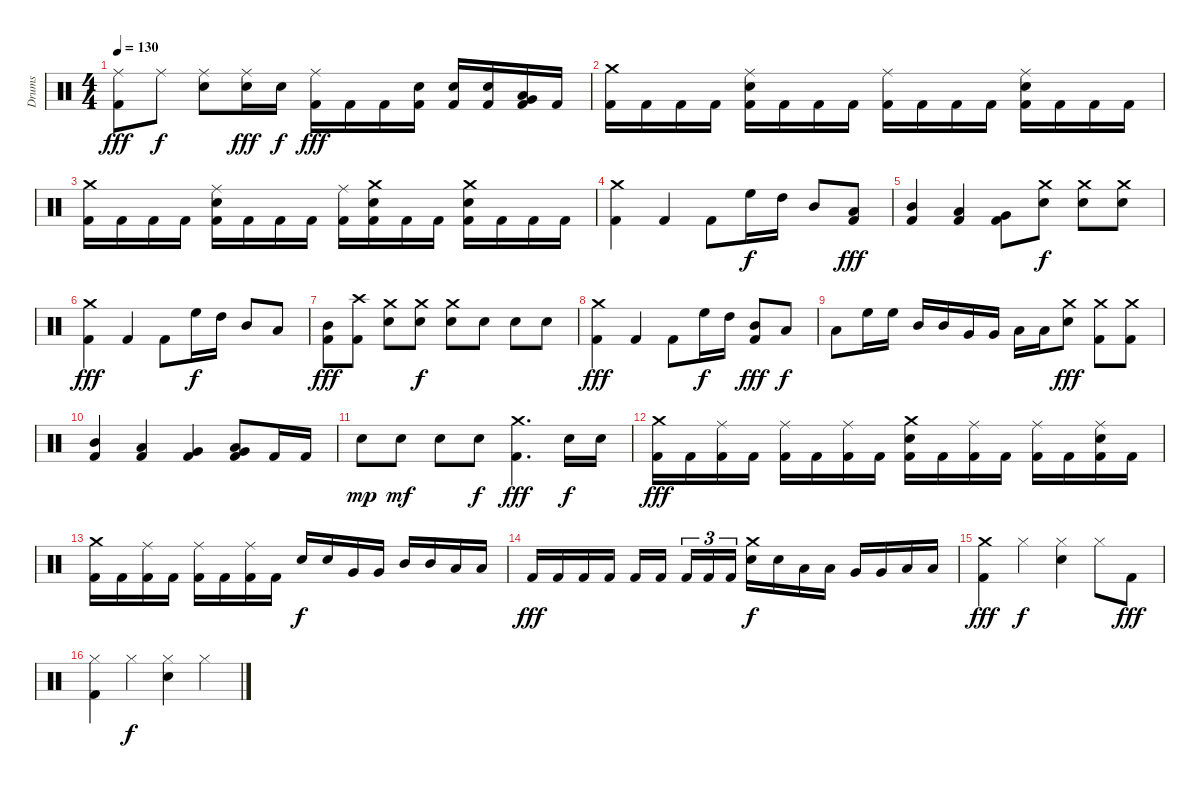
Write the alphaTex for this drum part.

\track ("Drums" "Drums") {instrument percussion}
\staff {score}
\articulation defaults
\ts (4 4)
\tempo 130
\clef neutral
\ks c
("Ride (middle)" "Kick (hit) 2").8{dy fff} "Ride (middle)".8{dy f} ("Ride (middle)" "Electric Snare (hit)").8 ("Ride (middle)" "Electric Snare (hit)").16{dy fff} "Electric Snare (hit)".16{dy f} ("Ride (middle)" "Kick (hit) 2").16{dy fff} "Kick (hit) 2".16 "Kick (hit) 2".16 ("Electric Snare (hit)" "Kick (hit) 2").16 ("Electric Snare (hit)" "Kick (hit) 2").16 ("Electric Snare (hit)" "Kick (hit) 2").16 ("Low Tom (hit)" "Very Low Tom (hit)" "Kick (hit) 2").16 "Kick (hit) 2".16 |
("Crash medium (hit)" "Kick (hit) 2").16 "Kick (hit) 2".16 "Kick (hit) 2".16 "Kick (hit) 2".16 ("Ride (middle)" "Electric Snare (hit)" "Kick (hit) 2").16 "Kick (hit) 2".16 "Kick (hit) 2".16 "Kick (hit) 2".16 ("Ride (middle)" "Kick (hit) 2").16 "Kick (hit) 2".16 "Kick (hit) 2".16 "Kick (hit) 2".16 ("Ride (middle)" "Electric Snare (hit)" "Kick (hit) 2").16 "Kick (hit) 2".16 "Kick (hit) 2".16 "Kick (hit) 2".16 |
("Crash medium (hit)" "Kick (hit) 2").16 "Kick (hit) 2".16 "Kick (hit) 2".16 "Kick (hit) 2".16 ("Ride (middle)" "Electric Snare (hit)" "Kick (hit) 2").16 "Kick (hit) 2".16 "Kick (hit) 2".16 "Kick (hit) 2".16 ("Ride (middle)" "Kick (hit) 2").16 ("Crash medium (hit)" "Electric Snare (hit)" "Kick (hit) 2").16 "Kick (hit) 2".16 "Kick (hit) 2".16 ("Crash medium (hit)" "Electric Snare (hit)" "Kick (hit) 2").16 "Kick (hit) 2".16 "Kick (hit) 2".16 "Kick (hit) 2".16 |
("Crash medium (hit)" "Kick (hit) 2").4 "Kick (hit) 2".4 "Kick (hit) 2".8 "High Floor Tom (hit)".16{dy f} "High Tom (hit)".16 "Mid Tom (hit)".8 ("Low Tom (hit)" "Kick (hit) 2").8{dy fff} |
("Mid Tom (hit)" "Kick (hit) 2").4 ("Low Tom (hit)" "Kick (hit) 2").4 ("Very Low Tom (hit)" "Kick (hit) 2").8 ("Crash medium (hit)" "Electric Snare (hit)").8{dy f} ("Crash medium (hit)" "Electric Snare (hit)").8 ("Crash medium (hit)" "Electric Snare (hit)").8 |
("Crash medium (hit)" "Kick (hit) 2").4{dy fff} "Kick (hit) 2".4 "Kick (hit) 2".8 "High Floor Tom (hit)".16{dy f} "High Tom (hit)".16 "Mid Tom (hit)".8 "Low Tom (hit)".8 |
("Mid Tom (hit)" "Kick (hit) 2").8{dy fff} ("Crash high (hit)" "Kick (hit) 2").8 ("Crash medium (hit)" "Electric Snare (hit)").8 ("Crash medium (hit)" "Electric Snare (hit)").8{dy f} ("Crash medium (hit)" "Electric Snare (hit)").8 "Electric Snare (hit)".8 "Electric Snare (hit)".8 "Electric Snare (hit)".8 |
("Crash medium (hit)" "Kick (hit) 2").4{dy fff} "Kick (hit) 2".4 "Kick (hit) 2".8 "High Floor Tom (hit)".16{dy f} "High Tom (hit)".16 ("Mid Tom (hit)" "Kick (hit) 2").8{dy fff} "Low Tom (hit)".8{dy f} |
"Low Tom (hit)".8 "High Floor Tom (hit)".16 "High Floor Tom (hit)".16 "Mid Tom (hit)".16 "Mid Tom (hit)".16 "Very Low Tom (hit)".16 "Very Low Tom (hit)".16 "Low Floor Tom (hit)".16 "Low Floor Tom (hit)".16 ("Crash medium (hit)" "Electric Snare (hit)").8{dy fff} ("Crash medium (hit)" "Kick (hit) 2").8 ("Crash medium (hit)" "Kick (hit) 2").8 |
("Mid Tom (hit)" "Kick (hit) 2").4 ("Low Tom (hit)" "Kick (hit) 2").4 ("Very Low Tom (hit)" "Kick (hit) 2").4 ("Low Tom (hit)" "Very Low Tom (hit)" "Kick (hit) 2").8 "Kick (hit) 2".16 "Kick (hit) 2".16 |
"Electric Snare (hit)".8{dy mp} "Electric Snare (hit)".8{dy mf} "Electric Snare (hit)".8 "Electric Snare (hit)".8{dy f} ("Crash medium (hit)" "Kick (hit) 2").4{d dy fff} "Electric Snare (hit)".16{dy f} "Electric Snare (hit)".16 |
("Crash medium (hit)" "Kick (hit) 2").16{dy fff} "Kick (hit) 2".16 ("Ride (middle)" "Kick (hit) 2").16 "Kick (hit) 2".16 ("Ride (middle)" "Kick (hit) 2").16 "Kick (hit) 2".16 ("Ride (middle)" "Kick (hit) 2").16 "Kick (hit) 2".16 ("Crash medium (hit)" "Snare (hit) 2" "Kick (hit) 2").16 "Kick (hit) 2".16 ("Ride (middle)" "Kick (hit) 2").16 "Kick (hit) 2".16 ("Ride (middle)" "Kick (hit) 2").16 "Kick (hit) 2".16 ("Ride (middle)" "Snare (hit) 2" "Kick (hit) 2").16 "Kick (hit) 2".16 |
("Crash medium (hit)" "Kick (hit) 2").16 "Kick (hit) 2".16 ("Ride (middle)" "Kick (hit) 2").16 "Kick (hit) 2".16 ("Ride (middle)" "Kick (hit) 2").16 "Kick (hit) 2".16 ("Ride (middle)" "Kick (hit) 2").16 "Kick (hit) 2".16 "Snare (hit) 2".16{dy f} "Snare (hit) 2".16 "Very Low Tom (hit)".16 "Very Low Tom (hit)".16 "Mid Tom (hit)".16 "Mid Tom (hit)".16 "Low Tom (hit)".16 "Low Tom (hit)".16 |
"Kick (hit) 2".16{dy fff} "Kick (hit) 2".16 "Kick (hit) 2".16 "Kick (hit) 2".16 "Kick (hit) 2".16 "Kick (hit) 2".16{beam splitsecondary} "Kick (hit) 2".16{tu (3 2)} "Kick (hit) 2".16{tu (3 2)} "Kick (hit) 2".16{tu (3 2)} ("Crash medium (hit)" "Electric Snare (hit)").16{dy f} "Electric Snare (hit)".16 "Low Tom (hit)".16 "Low Tom (hit)".16 "Very Low Tom (hit)".16 "Very Low Tom (hit)".16 "Low Floor Tom (hit)".16 "Low Floor Tom (hit)".16 |
("Crash medium (hit)" "Kick (hit) 2").4{dy fff} "Hi-Hat (closed)".4{dy f} ("Hi-Hat (closed)" "Electric Snare (hit)").4 "Hi-Hat (closed)".8 "Kick (hit) 2".8{dy fff} |
("Hi-Hat (closed)" "Kick (hit) 2").4 "Hi-Hat (closed)".4{dy f} ("Hi-Hat (closed)" "Electric Snare (hit)").4 "Hi-Hat (closed)".4
